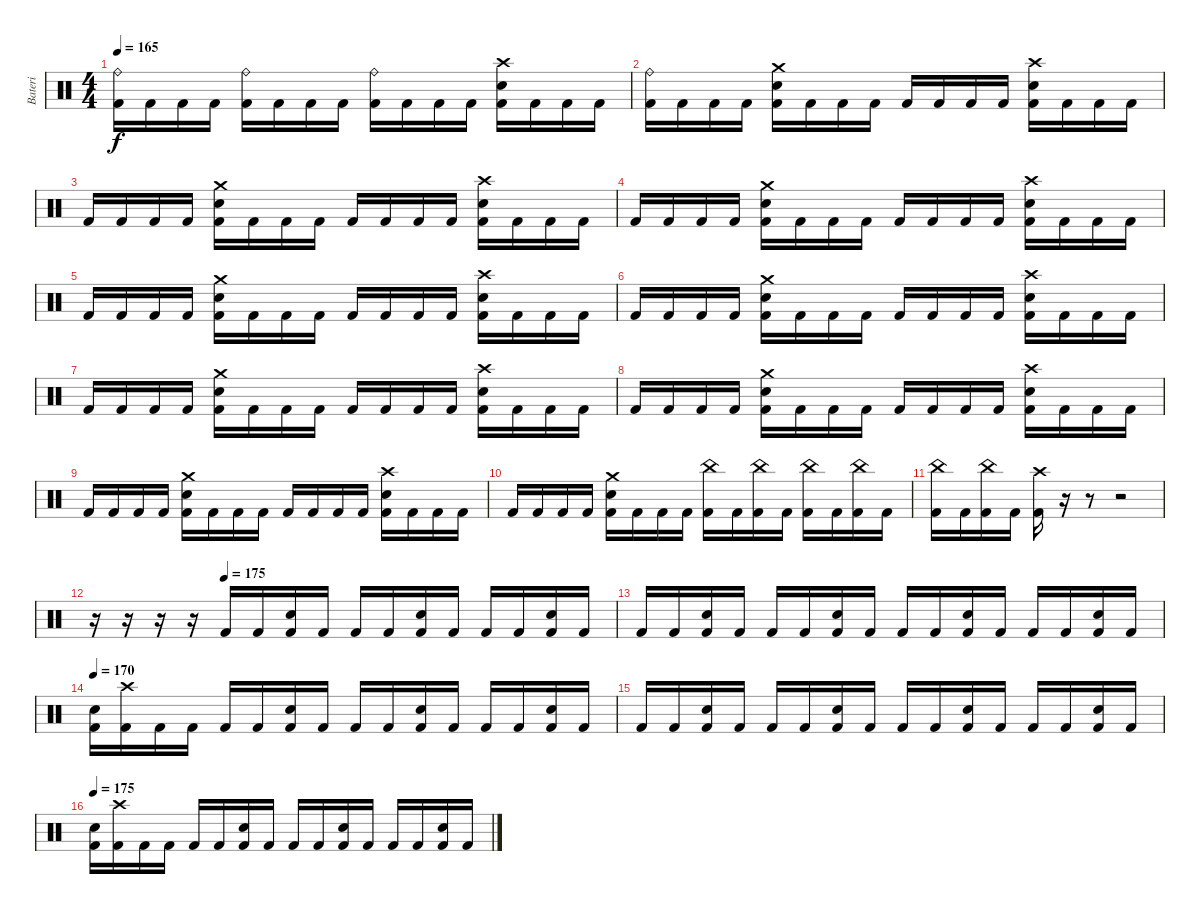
\track ("Bateri" "Bateri") {instrument percussion}
\staff {score}
\articulation defaults
\ts (4 4)
\tempo 165
\clef neutral
\ks c
("Ride (bell)" "Kick (hit) 2").16{dy f} "Kick (hit) 2".16 "Kick (hit) 2".16 "Kick (hit) 2".16 ("Ride (bell)" "Kick (hit) 2").16 "Kick (hit) 2".16 "Kick (hit) 2".16 "Kick (hit) 2".16 ("Ride (bell)" "Kick (hit) 2").16 "Kick (hit) 2".16 "Kick (hit) 2".16 "Kick (hit) 2".16 ("Snare (hit) 2" "Crash high (hit)" "Kick (hit) 2").16 "Kick (hit) 2".16 "Kick (hit) 2".16 "Kick (hit) 2".16 |
("Ride (bell)" "Kick (hit) 2").16 "Kick (hit) 2".16 "Kick (hit) 2".16 "Kick (hit) 2".16 ("Crash medium (hit)" "Snare (hit) 2" "Kick (hit) 2").16 "Kick (hit) 2".16 "Kick (hit) 2".16 "Kick (hit) 2".16 "Kick (hit) 2".16 "Kick (hit) 2".16 "Kick (hit) 2".16 "Kick (hit) 2".16 ("Crash high (hit)" "Snare (hit) 2" "Kick (hit) 2").16 "Kick (hit) 2".16 "Kick (hit) 2".16 "Kick (hit) 2".16 |
"Kick (hit) 2".16 "Kick (hit) 2".16 "Kick (hit) 2".16 "Kick (hit) 2".16 ("Crash medium (hit)" "Snare (hit) 2" "Kick (hit) 2").16 "Kick (hit) 2".16 "Kick (hit) 2".16 "Kick (hit) 2".16 "Kick (hit) 2".16 "Kick (hit) 2".16 "Kick (hit) 2".16 "Kick (hit) 2".16 ("Crash high (hit)" "Snare (hit) 2" "Kick (hit) 2").16 "Kick (hit) 2".16 "Kick (hit) 2".16 "Kick (hit) 2".16 |
"Kick (hit) 2".16 "Kick (hit) 2".16 "Kick (hit) 2".16 "Kick (hit) 2".16 ("Crash medium (hit)" "Snare (hit) 2" "Kick (hit) 2").16 "Kick (hit) 2".16 "Kick (hit) 2".16 "Kick (hit) 2".16 "Kick (hit) 2".16 "Kick (hit) 2".16 "Kick (hit) 2".16 "Kick (hit) 2".16 ("Crash high (hit)" "Snare (hit) 2" "Kick (hit) 2").16 "Kick (hit) 2".16 "Kick (hit) 2".16 "Kick (hit) 2".16 |
"Kick (hit) 2".16 "Kick (hit) 2".16 "Kick (hit) 2".16 "Kick (hit) 2".16 ("Crash medium (hit)" "Snare (hit) 2" "Kick (hit) 2").16 "Kick (hit) 2".16 "Kick (hit) 2".16 "Kick (hit) 2".16 "Kick (hit) 2".16 "Kick (hit) 2".16 "Kick (hit) 2".16 "Kick (hit) 2".16 ("Crash high (hit)" "Snare (hit) 2" "Kick (hit) 2").16 "Kick (hit) 2".16 "Kick (hit) 2".16 "Kick (hit) 2".16 |
"Kick (hit) 2".16 "Kick (hit) 2".16 "Kick (hit) 2".16 "Kick (hit) 2".16 ("Crash medium (hit)" "Snare (hit) 2" "Kick (hit) 2").16 "Kick (hit) 2".16 "Kick (hit) 2".16 "Kick (hit) 2".16 "Kick (hit) 2".16 "Kick (hit) 2".16 "Kick (hit) 2".16 "Kick (hit) 2".16 ("Crash high (hit)" "Snare (hit) 2" "Kick (hit) 2").16 "Kick (hit) 2".16 "Kick (hit) 2".16 "Kick (hit) 2".16 |
"Kick (hit) 2".16 "Kick (hit) 2".16 "Kick (hit) 2".16 "Kick (hit) 2".16 ("Crash medium (hit)" "Snare (hit) 2" "Kick (hit) 2").16 "Kick (hit) 2".16 "Kick (hit) 2".16 "Kick (hit) 2".16 "Kick (hit) 2".16 "Kick (hit) 2".16 "Kick (hit) 2".16 "Kick (hit) 2".16 ("Crash high (hit)" "Snare (hit) 2" "Kick (hit) 2").16 "Kick (hit) 2".16 "Kick (hit) 2".16 "Kick (hit) 2".16 |
"Kick (hit) 2".16 "Kick (hit) 2".16 "Kick (hit) 2".16 "Kick (hit) 2".16 ("Crash medium (hit)" "Snare (hit) 2" "Kick (hit) 2").16 "Kick (hit) 2".16 "Kick (hit) 2".16 "Kick (hit) 2".16 "Kick (hit) 2".16 "Kick (hit) 2".16 "Kick (hit) 2".16 "Kick (hit) 2".16 ("Crash high (hit)" "Snare (hit) 2" "Kick (hit) 2").16 "Kick (hit) 2".16 "Kick (hit) 2".16 "Kick (hit) 2".16 |
"Kick (hit) 2".16 "Kick (hit) 2".16 "Kick (hit) 2".16 "Kick (hit) 2".16 ("Crash medium (hit)" "Snare (hit) 2" "Kick (hit) 2").16 "Kick (hit) 2".16 "Kick (hit) 2".16 "Kick (hit) 2".16 "Kick (hit) 2".16 "Kick (hit) 2".16 "Kick (hit) 2".16 "Kick (hit) 2".16 ("Crash high (hit)" "Snare (hit) 2" "Kick (hit) 2").16 "Kick (hit) 2".16 "Kick (hit) 2".16 "Kick (hit) 2".16 |
"Kick (hit) 2".16 "Kick (hit) 2".16 "Kick (hit) 2".16 "Kick (hit) 2".16 ("Crash medium (hit)" "Snare (hit) 2" "Kick (hit) 2").16 "Kick (hit) 2".16 "Kick (hit) 2".16 "Kick (hit) 2".16 ("China (hit)" "Kick (hit) 2").16 "Kick (hit) 2".16 ("China (hit)" "Kick (hit) 2").16 "Kick (hit) 2".16 ("China (hit)" "Kick (hit) 2").16 "Kick (hit) 2".16 ("China (hit)" "Kick (hit) 2").16 "Kick (hit) 2".16 |
("China (hit)" "Kick (hit) 2").16 "Kick (hit) 2".16 ("China (hit)" "Kick (hit) 2").16 "Kick (hit) 2".16 ("Crash high (hit)" "Kick (hit) 2").16 r.16 r.8 r.2 |
\section ("" "")
\tempo (175 0.25)
r.16 r.16 r.16 r.16 "Kick (hit) 2".16 "Kick (hit) 2".16 ("Snare (hit) 2" "Kick (hit) 2").16 "Kick (hit) 2".16 "Kick (hit) 2".16 "Kick (hit) 2".16 ("Snare (hit) 2" "Kick (hit) 2").16 "Kick (hit) 2".16 "Kick (hit) 2".16 "Kick (hit) 2".16 ("Snare (hit) 2" "Kick (hit) 2").16 "Kick (hit) 2".16 |
"Kick (hit) 2".16 "Kick (hit) 2".16 ("Snare (hit) 2" "Kick (hit) 2").16 "Kick (hit) 2".16 "Kick (hit) 2".16 "Kick (hit) 2".16 ("Snare (hit) 2" "Kick (hit) 2").16 "Kick (hit) 2".16 "Kick (hit) 2".16 "Kick (hit) 2".16 ("Snare (hit) 2" "Kick (hit) 2").16 "Kick (hit) 2".16 "Kick (hit) 2".16 "Kick (hit) 2".16 ("Snare (hit) 2" "Kick (hit) 2").16 "Kick (hit) 2".16 |
\tempo 170
("Snare (hit) 2" "Kick (hit) 2").16 ("Crash high (hit)" "Kick (hit) 2").16 "Kick (hit) 2".16 "Kick (hit) 2".16 "Kick (hit) 2".16 "Kick (hit) 2".16 ("Snare (hit) 2" "Kick (hit) 2").16 "Kick (hit) 2".16 "Kick (hit) 2".16 "Kick (hit) 2".16 ("Snare (hit) 2" "Kick (hit) 2").16 "Kick (hit) 2".16 "Kick (hit) 2".16 "Kick (hit) 2".16 ("Snare (hit) 2" "Kick (hit) 2").16 "Kick (hit) 2".16 |
"Kick (hit) 2".16 "Kick (hit) 2".16 ("Snare (hit) 2" "Kick (hit) 2").16 "Kick (hit) 2".16 "Kick (hit) 2".16 "Kick (hit) 2".16 ("Snare (hit) 2" "Kick (hit) 2").16 "Kick (hit) 2".16 "Kick (hit) 2".16 "Kick (hit) 2".16 ("Snare (hit) 2" "Kick (hit) 2").16 "Kick (hit) 2".16 "Kick (hit) 2".16 "Kick (hit) 2".16 ("Snare (hit) 2" "Kick (hit) 2").16 "Kick (hit) 2".16 |
\tempo 175
("Snare (hit) 2" "Kick (hit) 2").16 ("Crash high (hit)" "Kick (hit) 2").16 "Kick (hit) 2".16 "Kick (hit) 2".16 "Kick (hit) 2".16 "Kick (hit) 2".16 ("Snare (hit) 2" "Kick (hit) 2").16 "Kick (hit) 2".16 "Kick (hit) 2".16 "Kick (hit) 2".16 ("Snare (hit) 2" "Kick (hit) 2").16 "Kick (hit) 2".16 "Kick (hit) 2".16 "Kick (hit) 2".16 ("Snare (hit) 2" "Kick (hit) 2").16 "Kick (hit) 2".16
